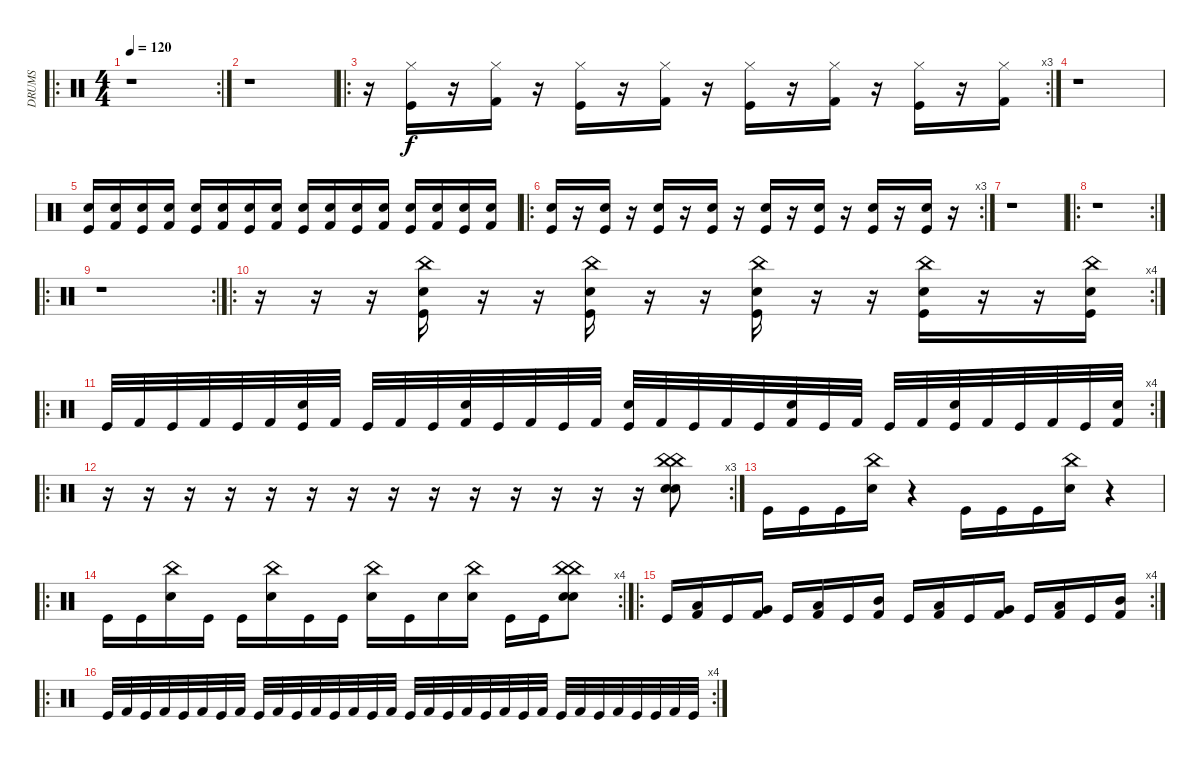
\track ("DRUMS" "DRUMS") {instrument percussion}
\staff {score}
\articulation defaults
\ro
\rc 2
\ts (4 4)
\tempo 120
\clef neutral
\ks c
r.1{dy f} |
r.1 |
\ro
\rc 3
r.16 ("Hi-Hat (closed)" "Kick (hit)").16 r.16 ("Hi-Hat (closed)" "Kick (hit) 2").16 r.16 ("Hi-Hat (closed)" "Kick (hit)").16 r.16 ("Hi-Hat (closed)" "Kick (hit) 2").16 r.16 ("Hi-Hat (closed)" "Kick (hit)").16 r.16 ("Hi-Hat (closed)" "Kick (hit) 2").16 r.16 ("Hi-Hat (closed)" "Kick (hit)").16 r.16 ("Hi-Hat (closed)" "Kick (hit) 2").16 |
r.1 |
("Snare (hit) 2" "Kick (hit)").16 ("Snare (hit) 2" "Kick (hit) 2").16 ("Snare (hit) 2" "Kick (hit)").16 ("Snare (hit) 2" "Kick (hit) 2").16 ("Snare (hit) 2" "Kick (hit)").16 ("Snare (hit) 2" "Kick (hit) 2").16 ("Snare (hit) 2" "Kick (hit)").16 ("Snare (hit) 2" "Kick (hit) 2").16 ("Snare (hit) 2" "Kick (hit)").16 ("Snare (hit) 2" "Kick (hit) 2").16 ("Snare (hit) 2" "Kick (hit)").16 ("Snare (hit) 2" "Kick (hit) 2").16 ("Snare (hit) 2" "Kick (hit)").16 ("Snare (hit) 2" "Kick (hit) 2").16 ("Snare (hit) 2" "Kick (hit)").16 ("Snare (hit) 2" "Kick (hit) 2").16 |
\ro
\rc 3
("Snare (hit) 2" "Kick (hit)").16 r.16 ("Snare (hit) 2" "Kick (hit)").16 r.16 ("Snare (hit) 2" "Kick (hit)").16 r.16 ("Snare (hit) 2" "Kick (hit)").16 r.16 ("Snare (hit) 2" "Kick (hit)").16 r.16 ("Snare (hit) 2" "Kick (hit)").16 r.16 ("Snare (hit) 2" "Kick (hit)").16 r.16 ("Snare (hit) 2" "Kick (hit)").16 r.16 |
r.1 |
\ro
\rc 2
r.1 |
\ro
\rc 2
r.1 |
\ro
\rc 4
r.16 r.16 r.16 ("China (hit)" "Snare (hit) 2" "Kick (hit)").16 r.16 r.16 ("China (hit)" "Snare (hit) 2" "Kick (hit)").16 r.16 r.16 ("China (hit)" "Snare (hit) 2" "Kick (hit)").16 r.16 r.16 ("China (hit)" "Snare (hit) 2" "Kick (hit)").16 r.16 r.16 ("China (hit)" "Snare (hit) 2" "Kick (hit)").16 |
\ro
\rc 4 "Kick (hit)".32 "Kick (hit) 2".32 "Kick (hit)".32 "Kick (hit) 2".32 "Kick (hit)".32 "Kick (hit) 2".32
("Snare (hit) 2" "Kick (hit)").32 "Kick (hit) 2".32 "Kick (hit)".32 "Kick (hit) 2".32 "Kick (hit)".32 ("Snare (hit) 2" "Kick (hit) 2").32 "Kick (hit)".32 "Kick (hit) 2".32 "Kick (hit)".32 "Kick (hit) 2".32 ("Snare (hit) 2" "Kick (hit)").32 "Kick (hit) 2".32 "Kick (hit)".32 "Kick (hit) 2".32 "Kick (hit)".32 ("Snare (hit) 2" "Kick (hit) 2").32 "Kick (hit)".32 "Kick (hit) 2".32 "Kick (hit)".32 "Kick (hit) 2".32 ("Snare (hit) 2" "Kick (hit)").32 "Kick (hit) 2".32 "Kick (hit)".32 "Kick (hit) 2".32 "Kick (hit)".32 ("Snare (hit) 2" "Kick (hit) 2").32 |
\ro
\rc 3
r.16 r.16 r.16 r.16 r.16 r.16 r.16 r.16 r.16 r.16 r.16 r.16 r.16 r.16 ("China (hit)" "China (hit)" "Snare (hit) 2" "Snare (hit) 2").8 |
"Kick (hit)".16 "Kick (hit)".16 "Kick (hit)".16 ("China (hit)" "Snare (hit) 2").16 r.4 "Kick (hit)".16 "Kick (hit)".16 "Kick (hit)".16 ("China (hit)" "Snare (hit) 2").16 r.4 |
\ro
\rc 4 "Kick (hit)".16 "Kick (hit)".16
("China (hit)" "Snare (hit) 2").16 "Kick (hit)".16 "Kick (hit)".16 ("China (hit)" "Snare (hit) 2").16 "Kick (hit)".16 "Kick (hit)".16 ("China (hit)" "Snare (hit) 2").16 "Kick (hit)".16 "Snare (hit) 2".16 ("China (hit)" "Snare (hit) 2").16 "Kick (hit)".16 "Kick (hit)".16 ("China (hit)" "China (hit)" "Snare (hit) 2" "Snare (hit) 2").8 |
\ro
\rc 4 "Kick (hit)".16
("Low Floor Tom (hit)" "Kick (hit) 2").16 "Kick (hit)".16 ("Very Low Tom (hit)" "Kick (hit) 2").16 "Kick (hit)".16 ("Low Tom (hit)" "Kick (hit) 2").16 "Kick (hit)".16 ("Mid Tom (hit)" "Kick (hit) 2").16 "Kick (hit)".16 ("Low Floor Tom (hit)" "Kick (hit) 2").16 "Kick (hit)".16 ("Very Low Tom (hit)" "Kick (hit) 2").16 "Kick (hit)".16 ("Low Tom (hit)" "Kick (hit) 2").16 "Kick (hit)".16 ("Mid Tom (hit)" "Kick (hit) 2").16 |
\ro
\rc 4 "Kick (hit)".32 "Kick (hit) 2".32 "Kick (hit)".32 "Kick (hit) 2".32 "Kick (hit)".32 "Kick (hit) 2".32 "Kick (hit)".32 "Kick (hit) 2".32 "Kick (hit)".32 "Kick (hit) 2".32 "Kick (hit)".32 "Kick (hit) 2".32 "Kick (hit)".32 "Kick (hit) 2".32 "Kick (hit)".32 "Kick (hit) 2".32 "Kick (hit)".32 "Kick (hit) 2".32 "Kick (hit)".32 "Kick (hit) 2".32 "Kick (hit)".32 "Kick (hit) 2".32 "Kick (hit)".32 "Kick (hit) 2".32 "Kick (hit)".32 "Kick (hit) 2".32 "Kick (hit)".32 "Kick (hit) 2".32 "Kick (hit)".32 "Kick (hit)".32 "Kick (hit) 2".32 "Kick (hit)".32
